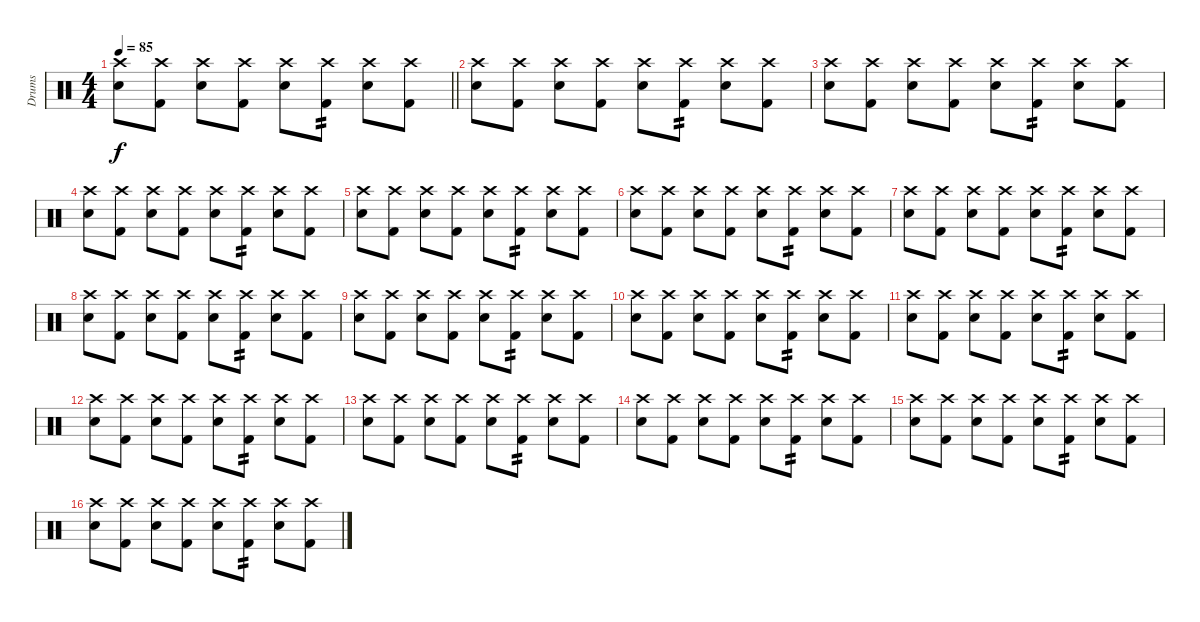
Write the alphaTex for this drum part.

\track ("Drums" "Drums") {instrument percussion}
\staff {score}
\articulation defaults
\ts (4 4)
\tempo 85
\clef neutral
\barLineRight lightlight
\ks c
("Crash high (hit)" "Electric Snare (hit)").8{dy f} ("Crash high (hit)" "Kick (hit) 2").8 ("Crash high (hit)" "Electric Snare (hit)").8 ("Crash high (hit)" "Kick (hit) 2").8 ("Crash high (hit)" "Electric Snare (hit)").8 ("Crash high (hit)" "Kick (hit) 2").8{tp 2} ("Crash high (hit)" "Electric Snare (hit)").8 ("Crash high (hit)" "Kick (hit) 2").8 |
("Crash high (hit)" "Electric Snare (hit)").8 ("Crash high (hit)" "Kick (hit) 2").8 ("Crash high (hit)" "Electric Snare (hit)").8 ("Crash high (hit)" "Kick (hit) 2").8 ("Crash high (hit)" "Electric Snare (hit)").8 ("Crash high (hit)" "Kick (hit) 2").8{tp 2} ("Crash high (hit)" "Electric Snare (hit)").8 ("Crash high (hit)" "Kick (hit) 2").8 |
("Crash high (hit)" "Electric Snare (hit)").8 ("Crash high (hit)" "Kick (hit) 2").8 ("Crash high (hit)" "Electric Snare (hit)").8 ("Crash high (hit)" "Kick (hit) 2").8 ("Crash high (hit)" "Electric Snare (hit)").8 ("Crash high (hit)" "Kick (hit) 2").8{tp 2} ("Crash high (hit)" "Electric Snare (hit)").8 ("Crash high (hit)" "Kick (hit) 2").8 |
("Crash high (hit)" "Electric Snare (hit)").8 ("Crash high (hit)" "Kick (hit) 2").8 ("Crash high (hit)" "Electric Snare (hit)").8 ("Crash high (hit)" "Kick (hit) 2").8 ("Crash high (hit)" "Electric Snare (hit)").8 ("Crash high (hit)" "Kick (hit) 2").8{tp 2} ("Crash high (hit)" "Electric Snare (hit)").8 ("Crash high (hit)" "Kick (hit) 2").8 |
("Crash high (hit)" "Electric Snare (hit)").8 ("Crash high (hit)" "Kick (hit) 2").8 ("Crash high (hit)" "Electric Snare (hit)").8 ("Crash high (hit)" "Kick (hit) 2").8 ("Crash high (hit)" "Electric Snare (hit)").8 ("Crash high (hit)" "Kick (hit) 2").8{tp 2} ("Crash high (hit)" "Electric Snare (hit)").8 ("Crash high (hit)" "Kick (hit) 2").8 |
("Crash high (hit)" "Electric Snare (hit)").8 ("Crash high (hit)" "Kick (hit) 2").8 ("Crash high (hit)" "Electric Snare (hit)").8 ("Crash high (hit)" "Kick (hit) 2").8 ("Crash high (hit)" "Electric Snare (hit)").8 ("Crash high (hit)" "Kick (hit) 2").8{tp 2} ("Crash high (hit)" "Electric Snare (hit)").8 ("Crash high (hit)" "Kick (hit) 2").8 |
("Crash high (hit)" "Electric Snare (hit)").8 ("Crash high (hit)" "Kick (hit) 2").8 ("Crash high (hit)" "Electric Snare (hit)").8 ("Crash high (hit)" "Kick (hit) 2").8 ("Crash high (hit)" "Electric Snare (hit)").8 ("Crash high (hit)" "Kick (hit) 2").8{tp 2} ("Crash high (hit)" "Electric Snare (hit)").8 ("Crash high (hit)" "Kick (hit) 2").8 |
("Crash high (hit)" "Electric Snare (hit)").8 ("Crash high (hit)" "Kick (hit) 2").8 ("Crash high (hit)" "Electric Snare (hit)").8 ("Crash high (hit)" "Kick (hit) 2").8 ("Crash high (hit)" "Electric Snare (hit)").8 ("Crash high (hit)" "Kick (hit) 2").8{tp 2} ("Crash high (hit)" "Electric Snare (hit)").8 ("Crash high (hit)" "Kick (hit) 2").8 |
("Crash high (hit)" "Electric Snare (hit)").8 ("Crash high (hit)" "Kick (hit) 2").8 ("Crash high (hit)" "Electric Snare (hit)").8 ("Crash high (hit)" "Kick (hit) 2").8 ("Crash high (hit)" "Electric Snare (hit)").8 ("Crash high (hit)" "Kick (hit) 2").8{tp 2} ("Crash high (hit)" "Electric Snare (hit)").8 ("Crash high (hit)" "Kick (hit) 2").8 |
("Crash high (hit)" "Electric Snare (hit)").8 ("Crash high (hit)" "Kick (hit) 2").8 ("Crash high (hit)" "Electric Snare (hit)").8 ("Crash high (hit)" "Kick (hit) 2").8 ("Crash high (hit)" "Electric Snare (hit)").8 ("Crash high (hit)" "Kick (hit) 2").8{tp 2} ("Crash high (hit)" "Electric Snare (hit)").8 ("Crash high (hit)" "Kick (hit) 2").8 |
("Crash high (hit)" "Electric Snare (hit)").8 ("Crash high (hit)" "Kick (hit) 2").8 ("Crash high (hit)" "Electric Snare (hit)").8 ("Crash high (hit)" "Kick (hit) 2").8 ("Crash high (hit)" "Electric Snare (hit)").8 ("Crash high (hit)" "Kick (hit) 2").8{tp 2} ("Crash high (hit)" "Electric Snare (hit)").8 ("Crash high (hit)" "Kick (hit) 2").8 |
("Crash high (hit)" "Electric Snare (hit)").8 ("Crash high (hit)" "Kick (hit) 2").8 ("Crash high (hit)" "Electric Snare (hit)").8 ("Crash high (hit)" "Kick (hit) 2").8 ("Crash high (hit)" "Electric Snare (hit)").8 ("Crash high (hit)" "Kick (hit) 2").8{tp 2} ("Crash high (hit)" "Electric Snare (hit)").8 ("Crash high (hit)" "Kick (hit) 2").8 |
("Crash high (hit)" "Electric Snare (hit)").8 ("Crash high (hit)" "Kick (hit) 2").8 ("Crash high (hit)" "Electric Snare (hit)").8 ("Crash high (hit)" "Kick (hit) 2").8 ("Crash high (hit)" "Electric Snare (hit)").8 ("Crash high (hit)" "Kick (hit) 2").8{tp 2} ("Crash high (hit)" "Electric Snare (hit)").8 ("Crash high (hit)" "Kick (hit) 2").8 |
("Crash high (hit)" "Electric Snare (hit)").8 ("Crash high (hit)" "Kick (hit) 2").8 ("Crash high (hit)" "Electric Snare (hit)").8 ("Crash high (hit)" "Kick (hit) 2").8 ("Crash high (hit)" "Electric Snare (hit)").8 ("Crash high (hit)" "Kick (hit) 2").8{tp 2} ("Crash high (hit)" "Electric Snare (hit)").8 ("Crash high (hit)" "Kick (hit) 2").8 |
("Crash high (hit)" "Electric Snare (hit)").8 ("Crash high (hit)" "Kick (hit) 2").8 ("Crash high (hit)" "Electric Snare (hit)").8 ("Crash high (hit)" "Kick (hit) 2").8 ("Crash high (hit)" "Electric Snare (hit)").8 ("Crash high (hit)" "Kick (hit) 2").8{tp 2} ("Crash high (hit)" "Electric Snare (hit)").8 ("Crash high (hit)" "Kick (hit) 2").8 |
("Crash high (hit)" "Electric Snare (hit)").8 ("Crash high (hit)" "Kick (hit) 2").8 ("Crash high (hit)" "Electric Snare (hit)").8 ("Crash high (hit)" "Kick (hit) 2").8 ("Crash high (hit)" "Electric Snare (hit)").8 ("Crash high (hit)" "Kick (hit) 2").8{tp 2} ("Crash high (hit)" "Electric Snare (hit)").8 ("Crash high (hit)" "Kick (hit) 2").8
